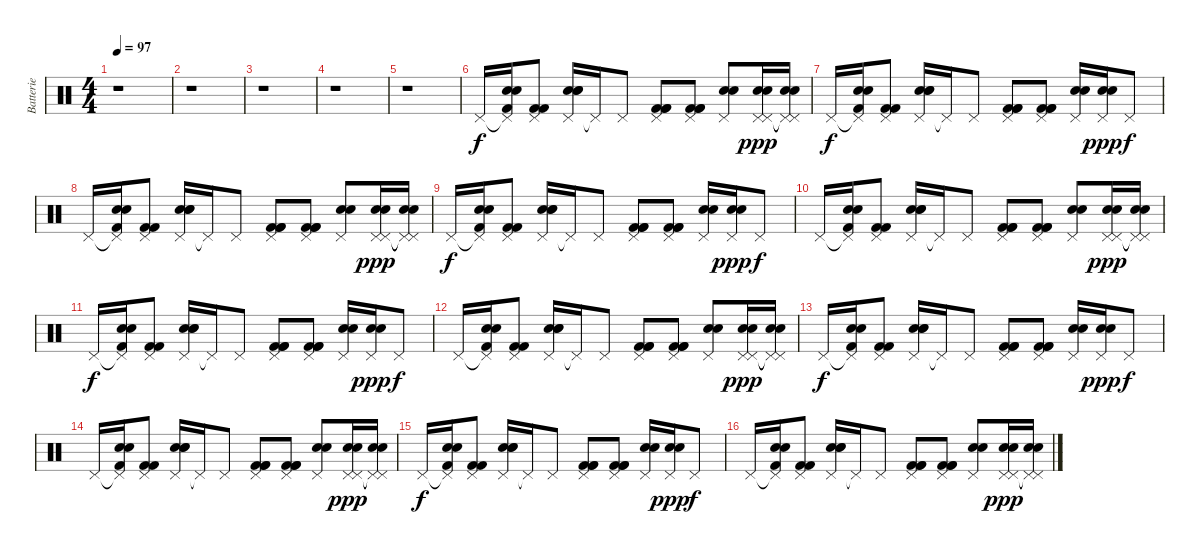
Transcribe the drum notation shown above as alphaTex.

\track ("Batterie" "Batterie") {instrument percussion}
\staff {score}
\articulation defaults
\ts (4 4)
\tempo 97
\clef neutral
\ks c
r.1{dy f} |
r.1 |
r.1 |
r.1 |
r.1 |
"Pedal Hi-Hat (hit)".16 ("Pedal Hi-Hat (hit)"{t} "Snare (hit) 2" "Snare (hit) 2" "Kick (hit) 2").16 ("Pedal Hi-Hat (hit)" "Kick (hit) 2" "Kick (hit) 2").8 ("Pedal Hi-Hat (hit)" "Snare (hit) 2" "Snare (hit) 2" "Snare (hit) 2").16 "Pedal Hi-Hat (hit)"{t}.16 "Pedal Hi-Hat (hit)".8 ("Pedal Hi-Hat (hit)" "Kick (hit) 2" "Kick (hit) 2" "Kick (hit) 2").8 ("Pedal Hi-Hat (hit)" "Kick (hit) 2" "Kick (hit) 2" "Kick (hit) 2").8 ("Pedal Hi-Hat (hit)" "Snare (hit) 2" "Snare (hit) 2").8 ("Pedal Hi-Hat (hit)" "Pedal Hi-Hat (hit)" "Snare (hit) 2" "Snare (hit) 2").16{dy ppp} ("Pedal Hi-Hat (hit)"{t} "Pedal Hi-Hat (hit)"{t} "Snare (hit) 2" "Snare (hit) 2").16 |
"Pedal Hi-Hat (hit)".16{dy f} ("Pedal Hi-Hat (hit)"{t} "Snare (hit) 2" "Snare (hit) 2" "Kick (hit) 2").16 ("Pedal Hi-Hat (hit)" "Kick (hit) 2" "Kick (hit) 2").8 ("Pedal Hi-Hat (hit)" "Snare (hit) 2" "Snare (hit) 2" "Snare (hit) 2").16 "Pedal Hi-Hat (hit)"{t}.16 "Pedal Hi-Hat (hit)".8 ("Pedal Hi-Hat (hit)" "Kick (hit) 2" "Kick (hit) 2" "Kick (hit) 2").8 ("Pedal Hi-Hat (hit)" "Kick (hit) 2" "Kick (hit) 2" "Kick (hit) 2").8 ("Pedal Hi-Hat (hit)" "Snare (hit) 2" "Snare (hit) 2").16 ("Pedal Hi-Hat (hit)" "Snare (hit) 2" "Snare (hit) 2").16{dy ppp} "Pedal Hi-Hat (hit)".8{dy f} |
"Pedal Hi-Hat (hit)".16 ("Pedal Hi-Hat (hit)"{t} "Snare (hit) 2" "Snare (hit) 2" "Kick (hit) 2").16 ("Pedal Hi-Hat (hit)" "Kick (hit) 2" "Kick (hit) 2").8 ("Pedal Hi-Hat (hit)" "Snare (hit) 2" "Snare (hit) 2" "Snare (hit) 2").16 "Pedal Hi-Hat (hit)"{t}.16 "Pedal Hi-Hat (hit)".8 ("Pedal Hi-Hat (hit)" "Kick (hit) 2" "Kick (hit) 2" "Kick (hit) 2").8 ("Pedal Hi-Hat (hit)" "Kick (hit) 2" "Kick (hit) 2" "Kick (hit) 2").8 ("Pedal Hi-Hat (hit)" "Snare (hit) 2" "Snare (hit) 2").8 ("Pedal Hi-Hat (hit)" "Pedal Hi-Hat (hit)" "Snare (hit) 2" "Snare (hit) 2").16{dy ppp} ("Pedal Hi-Hat (hit)"{t} "Pedal Hi-Hat (hit)"{t} "Snare (hit) 2" "Snare (hit) 2").16 |
"Pedal Hi-Hat (hit)".16{dy f} ("Pedal Hi-Hat (hit)"{t} "Snare (hit) 2" "Snare (hit) 2" "Kick (hit) 2").16 ("Pedal Hi-Hat (hit)" "Kick (hit) 2" "Kick (hit) 2").8 ("Pedal Hi-Hat (hit)" "Snare (hit) 2" "Snare (hit) 2" "Snare (hit) 2").16 "Pedal Hi-Hat (hit)"{t}.16 "Pedal Hi-Hat (hit)".8 ("Pedal Hi-Hat (hit)" "Kick (hit) 2" "Kick (hit) 2" "Kick (hit) 2").8 ("Pedal Hi-Hat (hit)" "Kick (hit) 2" "Kick (hit) 2" "Kick (hit) 2").8 ("Pedal Hi-Hat (hit)" "Snare (hit) 2" "Snare (hit) 2").16 ("Pedal Hi-Hat (hit)" "Snare (hit) 2" "Snare (hit) 2").16{dy ppp} "Pedal Hi-Hat (hit)".8{dy f} |
"Pedal Hi-Hat (hit)".16 ("Pedal Hi-Hat (hit)"{t} "Snare (hit) 2" "Snare (hit) 2" "Kick (hit) 2").16 ("Pedal Hi-Hat (hit)" "Kick (hit) 2" "Kick (hit) 2").8 ("Pedal Hi-Hat (hit)" "Snare (hit) 2" "Snare (hit) 2" "Snare (hit) 2").16 "Pedal Hi-Hat (hit)"{t}.16 "Pedal Hi-Hat (hit)".8 ("Pedal Hi-Hat (hit)" "Kick (hit) 2" "Kick (hit) 2" "Kick (hit) 2").8 ("Pedal Hi-Hat (hit)" "Kick (hit) 2" "Kick (hit) 2" "Kick (hit) 2").8 ("Pedal Hi-Hat (hit)" "Snare (hit) 2" "Snare (hit) 2").8 ("Pedal Hi-Hat (hit)" "Pedal Hi-Hat (hit)" "Snare (hit) 2" "Snare (hit) 2").16{dy ppp} ("Pedal Hi-Hat (hit)"{t} "Pedal Hi-Hat (hit)"{t} "Snare (hit) 2" "Snare (hit) 2").16 |
"Pedal Hi-Hat (hit)".16{dy f} ("Pedal Hi-Hat (hit)"{t} "Snare (hit) 2" "Snare (hit) 2" "Kick (hit) 2").16 ("Pedal Hi-Hat (hit)" "Kick (hit) 2" "Kick (hit) 2").8 ("Pedal Hi-Hat (hit)" "Snare (hit) 2" "Snare (hit) 2" "Snare (hit) 2").16 "Pedal Hi-Hat (hit)"{t}.16 "Pedal Hi-Hat (hit)".8 ("Pedal Hi-Hat (hit)" "Kick (hit) 2" "Kick (hit) 2" "Kick (hit) 2").8 ("Pedal Hi-Hat (hit)" "Kick (hit) 2" "Kick (hit) 2" "Kick (hit) 2").8 ("Pedal Hi-Hat (hit)" "Snare (hit) 2" "Snare (hit) 2").16 ("Pedal Hi-Hat (hit)" "Snare (hit) 2" "Snare (hit) 2").16{dy ppp} "Pedal Hi-Hat (hit)".8{dy f} |
"Pedal Hi-Hat (hit)".16 ("Pedal Hi-Hat (hit)"{t} "Snare (hit) 2" "Snare (hit) 2" "Kick (hit) 2").16 ("Pedal Hi-Hat (hit)" "Kick (hit) 2" "Kick (hit) 2").8 ("Pedal Hi-Hat (hit)" "Snare (hit) 2" "Snare (hit) 2" "Snare (hit) 2").16 "Pedal Hi-Hat (hit)"{t}.16 "Pedal Hi-Hat (hit)".8 ("Pedal Hi-Hat (hit)" "Kick (hit) 2" "Kick (hit) 2" "Kick (hit) 2").8 ("Pedal Hi-Hat (hit)" "Kick (hit) 2" "Kick (hit) 2" "Kick (hit) 2").8 ("Pedal Hi-Hat (hit)" "Snare (hit) 2" "Snare (hit) 2").8 ("Pedal Hi-Hat (hit)" "Pedal Hi-Hat (hit)" "Snare (hit) 2" "Snare (hit) 2").16{dy ppp} ("Pedal Hi-Hat (hit)"{t} "Pedal Hi-Hat (hit)"{t} "Snare (hit) 2" "Snare (hit) 2").16 |
"Pedal Hi-Hat (hit)".16{dy f} ("Pedal Hi-Hat (hit)"{t} "Snare (hit) 2" "Snare (hit) 2" "Kick (hit) 2").16 ("Pedal Hi-Hat (hit)" "Kick (hit) 2" "Kick (hit) 2").8 ("Pedal Hi-Hat (hit)" "Snare (hit) 2" "Snare (hit) 2" "Snare (hit) 2").16 "Pedal Hi-Hat (hit)"{t}.16 "Pedal Hi-Hat (hit)".8 ("Pedal Hi-Hat (hit)" "Kick (hit) 2" "Kick (hit) 2" "Kick (hit) 2").8 ("Pedal Hi-Hat (hit)" "Kick (hit) 2" "Kick (hit) 2" "Kick (hit) 2").8 ("Pedal Hi-Hat (hit)" "Snare (hit) 2" "Snare (hit) 2").16 ("Pedal Hi-Hat (hit)" "Snare (hit) 2" "Snare (hit) 2").16{dy ppp} "Pedal Hi-Hat (hit)".8{dy f} |
"Pedal Hi-Hat (hit)".16 ("Pedal Hi-Hat (hit)"{t} "Snare (hit) 2" "Snare (hit) 2" "Kick (hit) 2").16 ("Pedal Hi-Hat (hit)" "Kick (hit) 2" "Kick (hit) 2").8 ("Pedal Hi-Hat (hit)" "Snare (hit) 2" "Snare (hit) 2" "Snare (hit) 2").16 "Pedal Hi-Hat (hit)"{t}.16 "Pedal Hi-Hat (hit)".8 ("Pedal Hi-Hat (hit)" "Kick (hit) 2" "Kick (hit) 2" "Kick (hit) 2").8 ("Pedal Hi-Hat (hit)" "Kick (hit) 2" "Kick (hit) 2" "Kick (hit) 2").8 ("Pedal Hi-Hat (hit)" "Snare (hit) 2" "Snare (hit) 2").8 ("Pedal Hi-Hat (hit)" "Pedal Hi-Hat (hit)" "Snare (hit) 2" "Snare (hit) 2").16{dy ppp} ("Pedal Hi-Hat (hit)"{t} "Pedal Hi-Hat (hit)"{t} "Snare (hit) 2" "Snare (hit) 2").16 |
"Pedal Hi-Hat (hit)".16{dy f} ("Pedal Hi-Hat (hit)"{t} "Snare (hit) 2" "Snare (hit) 2" "Kick (hit) 2").16 ("Pedal Hi-Hat (hit)" "Kick (hit) 2" "Kick (hit) 2").8 ("Pedal Hi-Hat (hit)" "Snare (hit) 2" "Snare (hit) 2" "Snare (hit) 2").16 "Pedal Hi-Hat (hit)"{t}.16 "Pedal Hi-Hat (hit)".8 ("Pedal Hi-Hat (hit)" "Kick (hit) 2" "Kick (hit) 2" "Kick (hit) 2").8 ("Pedal Hi-Hat (hit)" "Kick (hit) 2" "Kick (hit) 2" "Kick (hit) 2").8 ("Pedal Hi-Hat (hit)" "Snare (hit) 2" "Snare (hit) 2").16 ("Pedal Hi-Hat (hit)" "Snare (hit) 2" "Snare (hit) 2").16{dy ppp} "Pedal Hi-Hat (hit)".8{dy f} |
"Pedal Hi-Hat (hit)".16 ("Pedal Hi-Hat (hit)"{t} "Snare (hit) 2" "Snare (hit) 2" "Kick (hit) 2").16 ("Pedal Hi-Hat (hit)" "Kick (hit) 2" "Kick (hit) 2").8 ("Pedal Hi-Hat (hit)" "Snare (hit) 2" "Snare (hit) 2" "Snare (hit) 2").16 "Pedal Hi-Hat (hit)"{t}.16 "Pedal Hi-Hat (hit)".8 ("Pedal Hi-Hat (hit)" "Kick (hit) 2" "Kick (hit) 2" "Kick (hit) 2").8 ("Pedal Hi-Hat (hit)" "Kick (hit) 2" "Kick (hit) 2" "Kick (hit) 2").8 ("Pedal Hi-Hat (hit)" "Snare (hit) 2" "Snare (hit) 2").8 ("Pedal Hi-Hat (hit)" "Pedal Hi-Hat (hit)" "Snare (hit) 2" "Snare (hit) 2").16{dy ppp} ("Pedal Hi-Hat (hit)"{t} "Pedal Hi-Hat (hit)"{t} "Snare (hit) 2" "Snare (hit) 2").16
